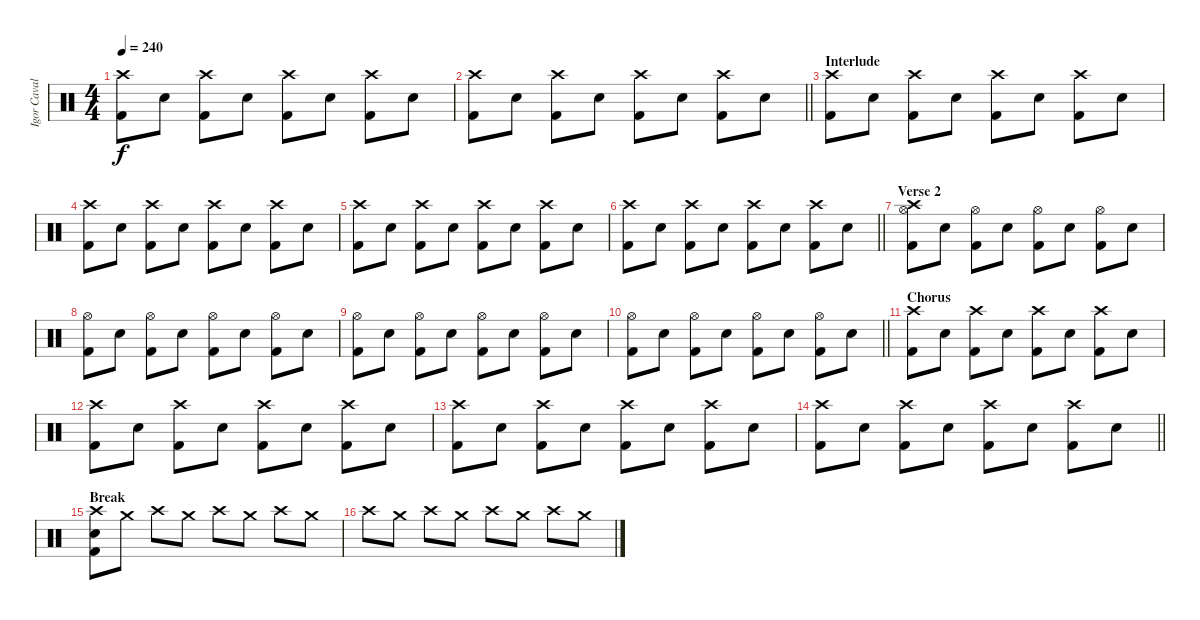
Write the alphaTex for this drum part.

\track ("Igor Cavalera" "Igor Caval") {instrument percussion}
\staff {score}
\articulation defaults
\ts (4 4)
\tempo 240
\clef neutral
\ks c
("Crash high (hit)" "Kick (hit) 2").8{dy f} "Electric Snare (hit)".8 ("Crash high (hit)" "Kick (hit) 2").8 "Electric Snare (hit)".8 ("Crash high (hit)" "Kick (hit) 2").8 "Electric Snare (hit)".8 ("Crash high (hit)" "Kick (hit) 2").8 "Electric Snare (hit)".8 |
\barLineRight lightlight
("Crash high (hit)" "Kick (hit) 2").8 "Electric Snare (hit)".8 ("Crash high (hit)" "Kick (hit) 2").8 "Electric Snare (hit)".8 ("Crash high (hit)" "Kick (hit) 2").8 "Electric Snare (hit)".8 ("Crash high (hit)" "Kick (hit) 2").8 "Electric Snare (hit)".8 |
\section ("" "Interlude")
("Crash high (hit)" "Kick (hit) 2").8 "Electric Snare (hit)".8 ("Crash high (hit)" "Kick (hit) 2").8 "Electric Snare (hit)".8 ("Crash high (hit)" "Kick (hit) 2").8 "Electric Snare (hit)".8 ("Crash high (hit)" "Kick (hit) 2").8 "Electric Snare (hit)".8 |
("Crash high (hit)" "Kick (hit) 2").8 "Electric Snare (hit)".8 ("Crash high (hit)" "Kick (hit) 2").8 "Electric Snare (hit)".8 ("Crash high (hit)" "Kick (hit) 2").8 "Electric Snare (hit)".8 ("Crash high (hit)" "Kick (hit) 2").8 "Electric Snare (hit)".8 |
("Crash high (hit)" "Kick (hit) 2").8 "Electric Snare (hit)".8 ("Crash high (hit)" "Kick (hit) 2").8 "Electric Snare (hit)".8 ("Crash high (hit)" "Kick (hit) 2").8 "Electric Snare (hit)".8 ("Crash high (hit)" "Kick (hit) 2").8 "Electric Snare (hit)".8 |
\barLineRight lightlight
("Crash high (hit)" "Kick (hit) 2").8 "Electric Snare (hit)".8 ("Crash high (hit)" "Kick (hit) 2").8 "Electric Snare (hit)".8 ("Crash high (hit)" "Kick (hit) 2").8 "Electric Snare (hit)".8 ("Crash high (hit)" "Kick (hit) 2").8 "Electric Snare (hit)".8 |
\section ("" "Verse 2")
("Crash high (hit)" "Hi-Hat (open)" "Kick (hit) 2").8 "Electric Snare (hit)".8 ("Hi-Hat (open)" "Kick (hit) 2").8 "Electric Snare (hit)".8 ("Hi-Hat (open)" "Kick (hit) 2").8 "Electric Snare (hit)".8 ("Hi-Hat (open)" "Kick (hit) 2").8 "Electric Snare (hit)".8 |
("Hi-Hat (open)" "Kick (hit) 2").8 "Electric Snare (hit)".8 ("Hi-Hat (open)" "Kick (hit) 2").8 "Electric Snare (hit)".8 ("Hi-Hat (open)" "Kick (hit) 2").8 "Electric Snare (hit)".8 ("Hi-Hat (open)" "Kick (hit) 2").8 "Electric Snare (hit)".8 |
("Hi-Hat (open)" "Kick (hit) 2").8 "Electric Snare (hit)".8 ("Hi-Hat (open)" "Kick (hit) 2").8 "Electric Snare (hit)".8 ("Hi-Hat (open)" "Kick (hit) 2").8 "Electric Snare (hit)".8 ("Hi-Hat (open)" "Kick (hit) 2").8 "Electric Snare (hit)".8 |
\barLineRight lightlight
("Hi-Hat (open)" "Kick (hit) 2").8 "Electric Snare (hit)".8 ("Hi-Hat (open)" "Kick (hit) 2").8 "Electric Snare (hit)".8 ("Hi-Hat (open)" "Kick (hit) 2").8 "Electric Snare (hit)".8 ("Hi-Hat (open)" "Kick (hit) 2").8 "Electric Snare (hit)".8 |
\section ("" "Chorus")
("Crash high (hit)" "Kick (hit) 2").8 "Electric Snare (hit)".8 ("Crash high (hit)" "Kick (hit) 2").8 "Electric Snare (hit)".8 ("Crash high (hit)" "Kick (hit) 2").8 "Electric Snare (hit)".8 ("Crash high (hit)" "Kick (hit) 2").8 "Electric Snare (hit)".8 |
("Crash high (hit)" "Kick (hit) 2").8 "Electric Snare (hit)".8 ("Crash high (hit)" "Kick (hit) 2").8 "Electric Snare (hit)".8 ("Crash high (hit)" "Kick (hit) 2").8 "Electric Snare (hit)".8 ("Crash high (hit)" "Kick (hit) 2").8 "Electric Snare (hit)".8 |
("Crash high (hit)" "Kick (hit) 2").8 "Electric Snare (hit)".8 ("Crash high (hit)" "Kick (hit) 2").8 "Electric Snare (hit)".8 ("Crash high (hit)" "Kick (hit) 2").8 "Electric Snare (hit)".8 ("Crash high (hit)" "Kick (hit) 2").8 "Electric Snare (hit)".8 |
\barLineRight lightlight
("Crash high (hit)" "Kick (hit) 2").8 "Electric Snare (hit)".8 ("Crash high (hit)" "Kick (hit) 2").8 "Electric Snare (hit)".8 ("Crash high (hit)" "Kick (hit) 2").8 "Electric Snare (hit)".8 ("Crash high (hit)" "Kick (hit) 2").8 "Electric Snare (hit)".8 |
\section ("" "Break")
("Crash high (hit)" "Electric Snare (hit)" "Kick (hit) 2").8 "Crash medium (hit)".8 "Crash high (hit)".8 "Crash medium (hit)".8 "Crash high (hit)".8 "Crash medium (hit)".8 "Crash high (hit)".8 "Crash medium (hit)".8 |
"Crash high (hit)".8 "Crash medium (hit)".8 "Crash high (hit)".8 "Crash medium (hit)".8 "Crash high (hit)".8 "Crash medium (hit)".8 "Crash high (hit)".8 "Crash medium (hit)".8
